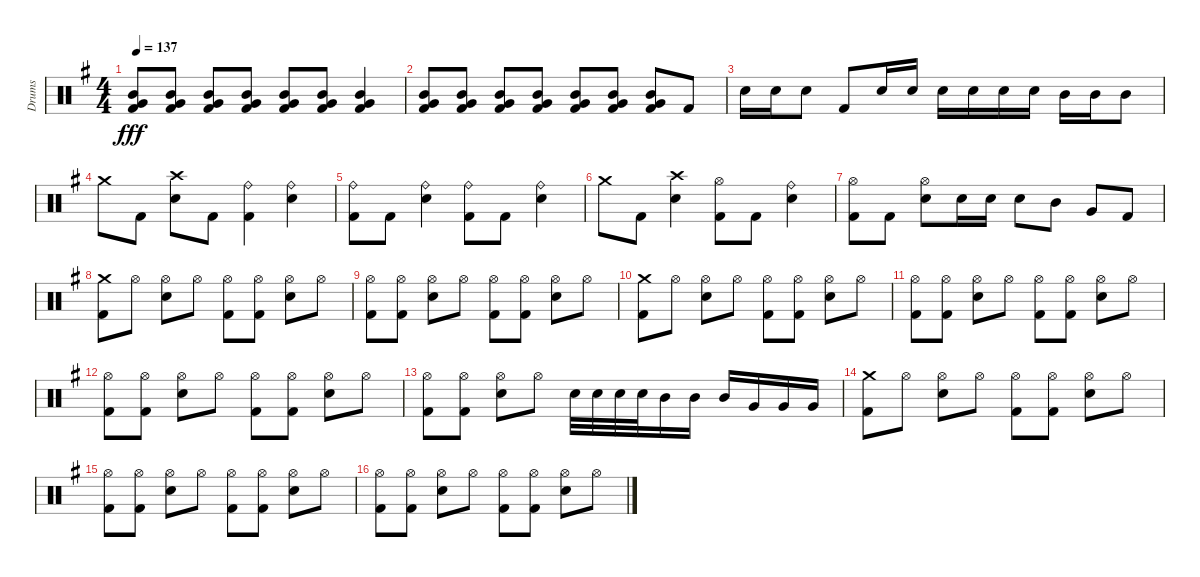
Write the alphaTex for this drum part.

\track ("Drums" "Drums") {instrument percussion}
\staff {score}
\articulation defaults
\ts (4 4)
\tempo 137
\clef neutral
\ks g
("Mid Tom (hit)" "Very Low Tom (hit)" "Kick (hit) 2").8{dy fff} ("Mid Tom (hit)" "Very Low Tom (hit)" "Kick (hit) 2").8 ("Mid Tom (hit)" "Very Low Tom (hit)" "Kick (hit) 2").8 ("Mid Tom (hit)" "Very Low Tom (hit)" "Kick (hit) 2").8 ("Mid Tom (hit)" "Very Low Tom (hit)" "Kick (hit) 2").8 ("Mid Tom (hit)" "Very Low Tom (hit)" "Kick (hit) 2").8 ("Mid Tom (hit)" "Very Low Tom (hit)" "Kick (hit) 2").4 |
("Mid Tom (hit)" "Very Low Tom (hit)" "Kick (hit) 2").8 ("Mid Tom (hit)" "Very Low Tom (hit)" "Kick (hit) 2").8 ("Mid Tom (hit)" "Very Low Tom (hit)" "Kick (hit) 2").8 ("Mid Tom (hit)" "Very Low Tom (hit)" "Kick (hit) 2").8 ("Mid Tom (hit)" "Very Low Tom (hit)" "Kick (hit) 2").8 ("Mid Tom (hit)" "Very Low Tom (hit)" "Kick (hit) 2").8 ("Mid Tom (hit)" "Very Low Tom (hit)" "Kick (hit) 2").8 "Kick (hit) 2".8 |
"Electric Snare (hit)".16 "Electric Snare (hit)".16 "Electric Snare (hit)".8 "Kick (hit) 2".8 "Electric Snare (hit)".16 "Electric Snare (hit)".16 "Electric Snare (hit)".16 "Electric Snare (hit)".16 "Electric Snare (hit)".16 "Electric Snare (hit)".16 "Mid Tom (hit)".16 "Mid Tom (hit)".16 "Mid Tom (hit)".8 |
"Crash medium (hit)".8 "Kick (hit) 2".8 ("Crash high (hit)" "Electric Snare (hit)").8 "Kick (hit) 2".8 ("Ride (bell)" "Kick (hit) 2").4 ("Ride (bell)" "Electric Snare (hit)").4 |
("Ride (bell)" "Kick (hit) 2").8 "Kick (hit) 2".8 ("Ride (bell)" "Electric Snare (hit)").4 ("Ride (bell)" "Kick (hit) 2").8 "Kick (hit) 2".8 ("Ride (bell)" "Electric Snare (hit)").4 |
"Crash medium (hit)".8 "Kick (hit) 2".8 ("Crash high (hit)" "Electric Snare (hit)").4 ("Hi-Hat (open)" "Kick (hit) 2").8 "Kick (hit) 2".8 ("Ride (bell)" "Electric Snare (hit)").4 |
("Hi-Hat (open)" "Kick (hit) 2").8 "Kick (hit) 2".8 ("Hi-Hat (open)" "Electric Snare (hit)").8 "Electric Snare (hit)".16 "Electric Snare (hit)".16 "Electric Snare (hit)".8 "Mid Tom (hit)".8 "Very Low Tom (hit)".8 "Kick (hit) 2".8 |
("Crash medium (hit)" "Kick (hit) 2").8 "Hi-Hat (open)".8 ("Hi-Hat (open)" "Electric Snare (hit)").8 "Hi-Hat (open)".8 ("Hi-Hat (open)" "Kick (hit) 2").8 ("Hi-Hat (open)" "Kick (hit) 2").8 ("Hi-Hat (open)" "Electric Snare (hit)").8 "Hi-Hat (open)".8 |
("Hi-Hat (open)" "Kick (hit) 2").8 ("Hi-Hat (open)" "Kick (hit) 2").8 ("Hi-Hat (open)" "Electric Snare (hit)").8 "Hi-Hat (open)".8 ("Hi-Hat (open)" "Kick (hit) 2").8 ("Hi-Hat (open)" "Kick (hit) 2").8 ("Hi-Hat (open)" "Electric Snare (hit)").8 "Hi-Hat (open)".8 |
("Crash medium (hit)" "Kick (hit) 2").8 "Hi-Hat (open)".8 ("Hi-Hat (open)" "Electric Snare (hit)").8 "Hi-Hat (open)".8 ("Hi-Hat (open)" "Kick (hit) 2").8 ("Hi-Hat (open)" "Kick (hit) 2").8 ("Hi-Hat (open)" "Electric Snare (hit)").8 "Hi-Hat (open)".8 |
("Hi-Hat (open)" "Kick (hit) 2").8 ("Hi-Hat (open)" "Kick (hit) 2").8 ("Hi-Hat (open)" "Electric Snare (hit)").8 "Hi-Hat (open)".8 ("Hi-Hat (open)" "Kick (hit) 2").8 ("Hi-Hat (open)" "Kick (hit) 2").8 ("Hi-Hat (open)" "Electric Snare (hit)").8 "Hi-Hat (open)".8 |
("Hi-Hat (open)" "Kick (hit) 2").8 ("Hi-Hat (open)" "Kick (hit) 2").8 ("Hi-Hat (open)" "Electric Snare (hit)").8 "Hi-Hat (open)".8 ("Hi-Hat (open)" "Kick (hit) 2").8 ("Hi-Hat (open)" "Kick (hit) 2").8 ("Hi-Hat (open)" "Electric Snare (hit)").8 "Hi-Hat (open)".8 |
("Hi-Hat (open)" "Kick (hit) 2").8 ("Hi-Hat (open)" "Kick (hit) 2").8 ("Hi-Hat (open)" "Electric Snare (hit)").8 "Hi-Hat (open)".8 "Electric Snare (hit)".32 "Electric Snare (hit)".32 "Electric Snare (hit)".32 "Electric Snare (hit)".32 "Mid Tom (hit)".16 "Mid Tom (hit)".16 "Mid Tom (hit)".16 "Very Low Tom (hit)".16 "Very Low Tom (hit)".16 "Very Low Tom (hit)".16 |
("Crash medium (hit)" "Kick (hit) 2").8 "Hi-Hat (open)".8 ("Hi-Hat (open)" "Electric Snare (hit)").8 "Hi-Hat (open)".8 ("Hi-Hat (open)" "Kick (hit) 2").8 ("Hi-Hat (open)" "Kick (hit) 2").8 ("Hi-Hat (open)" "Electric Snare (hit)").8 "Hi-Hat (open)".8 |
("Hi-Hat (open)" "Kick (hit) 2").8 ("Hi-Hat (open)" "Kick (hit) 2").8 ("Hi-Hat (open)" "Electric Snare (hit)").8 "Hi-Hat (open)".8 ("Hi-Hat (open)" "Kick (hit) 2").8 ("Hi-Hat (open)" "Kick (hit) 2").8 ("Hi-Hat (open)" "Electric Snare (hit)").8 "Hi-Hat (open)".8 |
("Hi-Hat (open)" "Kick (hit) 2").8 ("Hi-Hat (open)" "Kick (hit) 2").8 ("Hi-Hat (open)" "Electric Snare (hit)").8 "Hi-Hat (open)".8 ("Hi-Hat (open)" "Kick (hit) 2").8 ("Hi-Hat (open)" "Kick (hit) 2").8 ("Hi-Hat (open)" "Electric Snare (hit)").8 "Hi-Hat (open)".8
